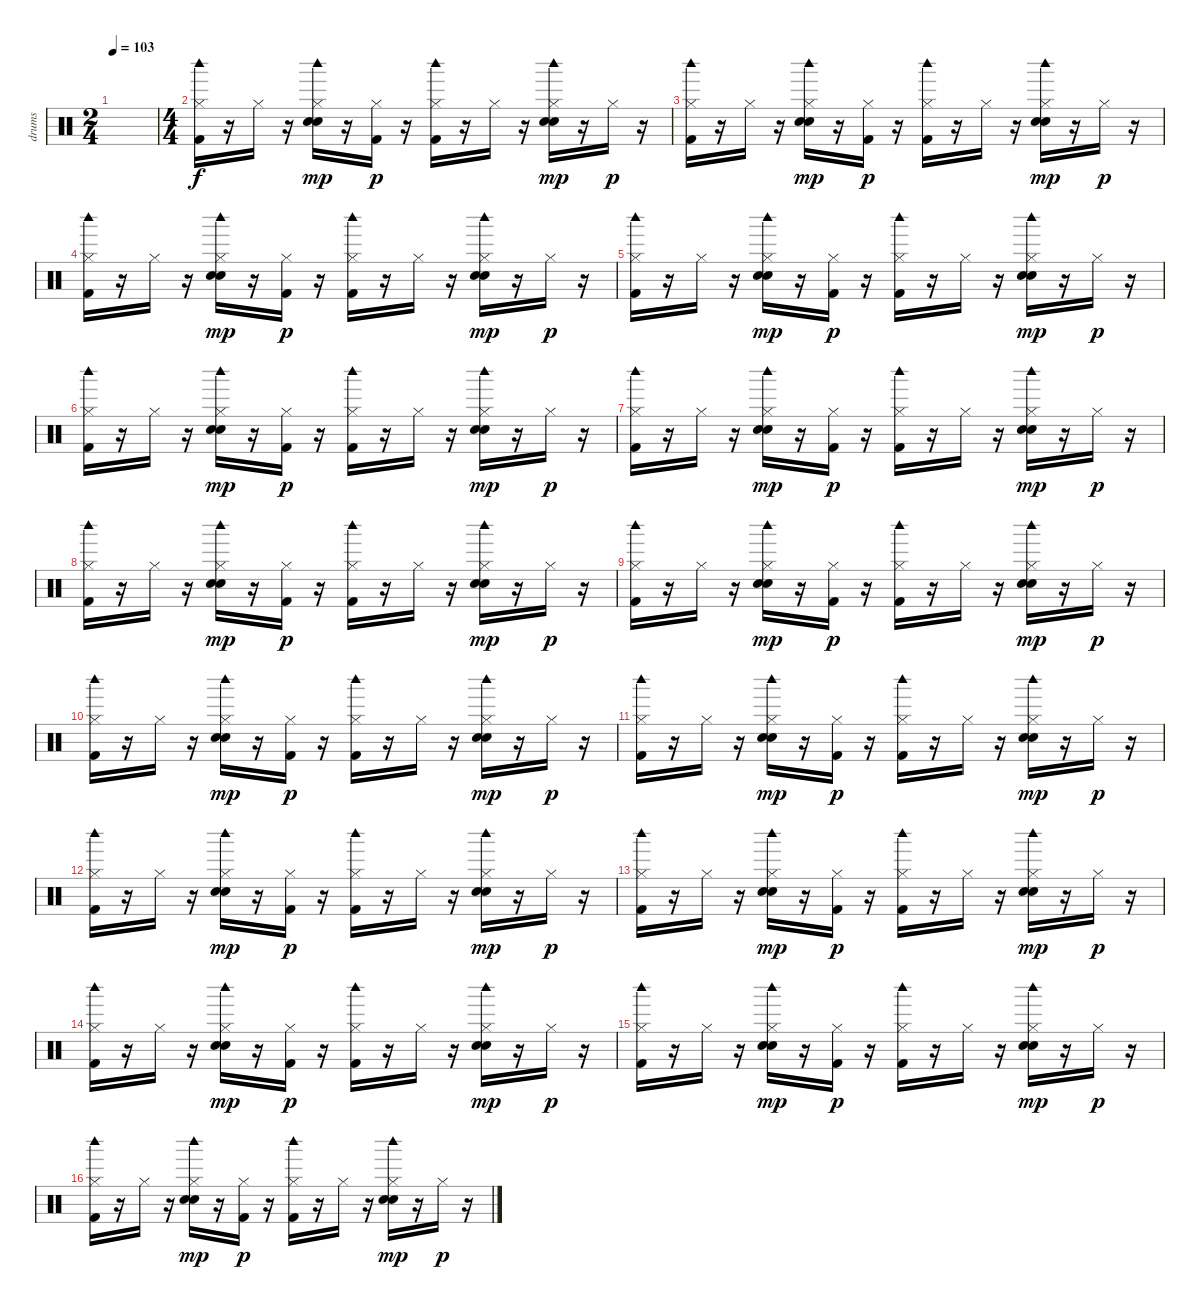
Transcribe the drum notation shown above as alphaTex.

\track ("drums" "drums") {instrument percussion}
\staff {score}
\articulation defaults
\ts (2 4)
\tempo 103
\clef neutral
\ks c
|
\ts (4 4)
("Hi-Hat (closed)" "Woodblock high (hit)" "Kick (hit) 2").16 r.16 "Hi-Hat (closed)".16 r.16 ("Hi-Hat (closed)" "Electric Snare (hit)" "Snare (hit) 2" "Woodblock high (hit)").16{dy mp} r.16 ("Hi-Hat (closed)" "Kick (hit) 2").16{dy p} r.16 ("Hi-Hat (closed)" "Woodblock high (hit)" "Kick (hit) 2").16 r.16 "Hi-Hat (closed)".16 r.16 ("Hi-Hat (closed)" "Electric Snare (hit)" "Snare (hit) 2" "Woodblock high (hit)").16{dy mp} r.16 "Hi-Hat (closed)".16{dy p} r.16 |
("Hi-Hat (closed)" "Woodblock high (hit)" "Kick (hit) 2").16 r.16 "Hi-Hat (closed)".16 r.16 ("Hi-Hat (closed)" "Electric Snare (hit)" "Snare (hit) 2" "Woodblock high (hit)").16{dy mp} r.16 ("Hi-Hat (closed)" "Kick (hit) 2").16{dy p} r.16 ("Hi-Hat (closed)" "Woodblock high (hit)" "Kick (hit) 2").16 r.16 "Hi-Hat (closed)".16 r.16 ("Hi-Hat (closed)" "Electric Snare (hit)" "Snare (hit) 2" "Woodblock high (hit)").16{dy mp} r.16 "Hi-Hat (closed)".16{dy p} r.16 |
("Hi-Hat (closed)" "Woodblock high (hit)" "Kick (hit) 2").16 r.16 "Hi-Hat (closed)".16 r.16 ("Hi-Hat (closed)" "Electric Snare (hit)" "Snare (hit) 2" "Woodblock high (hit)").16{dy mp} r.16 ("Hi-Hat (closed)" "Kick (hit) 2").16{dy p} r.16 ("Hi-Hat (closed)" "Woodblock high (hit)" "Kick (hit) 2").16 r.16 "Hi-Hat (closed)".16 r.16 ("Hi-Hat (closed)" "Electric Snare (hit)" "Snare (hit) 2" "Woodblock high (hit)").16{dy mp} r.16 "Hi-Hat (closed)".16{dy p} r.16 |
("Hi-Hat (closed)" "Woodblock high (hit)" "Kick (hit) 2").16 r.16 "Hi-Hat (closed)".16 r.16 ("Hi-Hat (closed)" "Electric Snare (hit)" "Snare (hit) 2" "Woodblock high (hit)").16{dy mp} r.16 ("Hi-Hat (closed)" "Kick (hit) 2").16{dy p} r.16 ("Hi-Hat (closed)" "Woodblock high (hit)" "Kick (hit) 2").16 r.16 "Hi-Hat (closed)".16 r.16 ("Hi-Hat (closed)" "Electric Snare (hit)" "Snare (hit) 2" "Woodblock high (hit)").16{dy mp} r.16 "Hi-Hat (closed)".16{dy p} r.16 |
("Hi-Hat (closed)" "Woodblock high (hit)" "Kick (hit) 2").16 r.16 "Hi-Hat (closed)".16 r.16 ("Hi-Hat (closed)" "Electric Snare (hit)" "Snare (hit) 2" "Woodblock high (hit)").16{dy mp} r.16 ("Hi-Hat (closed)" "Kick (hit) 2").16{dy p} r.16 ("Hi-Hat (closed)" "Woodblock high (hit)" "Kick (hit) 2").16 r.16 "Hi-Hat (closed)".16 r.16 ("Hi-Hat (closed)" "Electric Snare (hit)" "Snare (hit) 2" "Woodblock high (hit)").16{dy mp} r.16 "Hi-Hat (closed)".16{dy p} r.16 |
("Hi-Hat (closed)" "Woodblock high (hit)" "Kick (hit) 2").16 r.16 "Hi-Hat (closed)".16 r.16 ("Hi-Hat (closed)" "Electric Snare (hit)" "Snare (hit) 2" "Woodblock high (hit)").16{dy mp} r.16 ("Hi-Hat (closed)" "Kick (hit) 2").16{dy p} r.16 ("Hi-Hat (closed)" "Woodblock high (hit)" "Kick (hit) 2").16 r.16 "Hi-Hat (closed)".16 r.16 ("Hi-Hat (closed)" "Electric Snare (hit)" "Snare (hit) 2" "Woodblock high (hit)").16{dy mp} r.16 "Hi-Hat (closed)".16{dy p} r.16 |
("Hi-Hat (closed)" "Woodblock high (hit)" "Kick (hit) 2").16 r.16 "Hi-Hat (closed)".16 r.16 ("Hi-Hat (closed)" "Electric Snare (hit)" "Snare (hit) 2" "Woodblock high (hit)").16{dy mp} r.16 ("Hi-Hat (closed)" "Kick (hit) 2").16{dy p} r.16 ("Hi-Hat (closed)" "Woodblock high (hit)" "Kick (hit) 2").16 r.16 "Hi-Hat (closed)".16 r.16 ("Hi-Hat (closed)" "Electric Snare (hit)" "Snare (hit) 2" "Woodblock high (hit)").16{dy mp} r.16 "Hi-Hat (closed)".16{dy p} r.16 |
("Hi-Hat (closed)" "Woodblock high (hit)" "Kick (hit) 2").16 r.16 "Hi-Hat (closed)".16 r.16 ("Hi-Hat (closed)" "Electric Snare (hit)" "Snare (hit) 2" "Woodblock high (hit)").16{dy mp} r.16 ("Hi-Hat (closed)" "Kick (hit) 2").16{dy p} r.16 ("Hi-Hat (closed)" "Woodblock high (hit)" "Kick (hit) 2").16 r.16 "Hi-Hat (closed)".16 r.16 ("Hi-Hat (closed)" "Electric Snare (hit)" "Snare (hit) 2" "Woodblock high (hit)").16{dy mp} r.16 "Hi-Hat (closed)".16{dy p} r.16 |
("Hi-Hat (closed)" "Woodblock high (hit)" "Kick (hit) 2").16 r.16 "Hi-Hat (closed)".16 r.16 ("Hi-Hat (closed)" "Electric Snare (hit)" "Snare (hit) 2" "Woodblock high (hit)").16{dy mp} r.16 ("Hi-Hat (closed)" "Kick (hit) 2").16{dy p} r.16 ("Hi-Hat (closed)" "Woodblock high (hit)" "Kick (hit) 2").16 r.16 "Hi-Hat (closed)".16 r.16 ("Hi-Hat (closed)" "Electric Snare (hit)" "Snare (hit) 2" "Woodblock high (hit)").16{dy mp} r.16 "Hi-Hat (closed)".16{dy p} r.16 |
("Hi-Hat (closed)" "Woodblock high (hit)" "Kick (hit) 2").16 r.16 "Hi-Hat (closed)".16 r.16 ("Hi-Hat (closed)" "Electric Snare (hit)" "Snare (hit) 2" "Woodblock high (hit)").16{dy mp} r.16 ("Hi-Hat (closed)" "Kick (hit) 2").16{dy p} r.16 ("Hi-Hat (closed)" "Woodblock high (hit)" "Kick (hit) 2").16 r.16 "Hi-Hat (closed)".16 r.16 ("Hi-Hat (closed)" "Electric Snare (hit)" "Snare (hit) 2" "Woodblock high (hit)").16{dy mp} r.16 "Hi-Hat (closed)".16{dy p} r.16 |
("Hi-Hat (closed)" "Woodblock high (hit)" "Kick (hit) 2").16 r.16 "Hi-Hat (closed)".16 r.16 ("Hi-Hat (closed)" "Electric Snare (hit)" "Snare (hit) 2" "Woodblock high (hit)").16{dy mp} r.16 ("Hi-Hat (closed)" "Kick (hit) 2").16{dy p} r.16 ("Hi-Hat (closed)" "Woodblock high (hit)" "Kick (hit) 2").16 r.16 "Hi-Hat (closed)".16 r.16 ("Hi-Hat (closed)" "Electric Snare (hit)" "Snare (hit) 2" "Woodblock high (hit)").16{dy mp} r.16 "Hi-Hat (closed)".16{dy p} r.16 |
("Hi-Hat (closed)" "Woodblock high (hit)" "Kick (hit) 2").16 r.16 "Hi-Hat (closed)".16 r.16 ("Hi-Hat (closed)" "Electric Snare (hit)" "Snare (hit) 2" "Woodblock high (hit)").16{dy mp} r.16 ("Hi-Hat (closed)" "Kick (hit) 2").16{dy p} r.16 ("Hi-Hat (closed)" "Woodblock high (hit)" "Kick (hit) 2").16 r.16 "Hi-Hat (closed)".16 r.16 ("Hi-Hat (closed)" "Electric Snare (hit)" "Snare (hit) 2" "Woodblock high (hit)").16{dy mp} r.16 "Hi-Hat (closed)".16{dy p} r.16 |
("Hi-Hat (closed)" "Woodblock high (hit)" "Kick (hit) 2").16 r.16 "Hi-Hat (closed)".16 r.16 ("Hi-Hat (closed)" "Electric Snare (hit)" "Snare (hit) 2" "Woodblock high (hit)").16{dy mp} r.16 ("Hi-Hat (closed)" "Kick (hit) 2").16{dy p} r.16 ("Hi-Hat (closed)" "Woodblock high (hit)" "Kick (hit) 2").16 r.16 "Hi-Hat (closed)".16 r.16 ("Hi-Hat (closed)" "Electric Snare (hit)" "Snare (hit) 2" "Woodblock high (hit)").16{dy mp} r.16 "Hi-Hat (closed)".16{dy p} r.16 |
("Hi-Hat (closed)" "Woodblock high (hit)" "Kick (hit) 2").16 r.16 "Hi-Hat (closed)".16 r.16 ("Hi-Hat (closed)" "Electric Snare (hit)" "Snare (hit) 2" "Woodblock high (hit)").16{dy mp} r.16 ("Hi-Hat (closed)" "Kick (hit) 2").16{dy p} r.16 ("Hi-Hat (closed)" "Woodblock high (hit)" "Kick (hit) 2").16 r.16 "Hi-Hat (closed)".16 r.16 ("Hi-Hat (closed)" "Electric Snare (hit)" "Snare (hit) 2" "Woodblock high (hit)").16{dy mp} r.16 "Hi-Hat (closed)".16{dy p} r.16 |
("Hi-Hat (closed)" "Woodblock high (hit)" "Kick (hit) 2").16 r.16 "Hi-Hat (closed)".16 r.16 ("Hi-Hat (closed)" "Electric Snare (hit)" "Snare (hit) 2" "Woodblock high (hit)").16{dy mp} r.16 ("Hi-Hat (closed)" "Kick (hit) 2").16{dy p} r.16 ("Hi-Hat (closed)" "Woodblock high (hit)" "Kick (hit) 2").16 r.16 "Hi-Hat (closed)".16 r.16 ("Hi-Hat (closed)" "Electric Snare (hit)" "Snare (hit) 2" "Woodblock high (hit)").16{dy mp} r.16 "Hi-Hat (closed)".16{dy p} r.16
